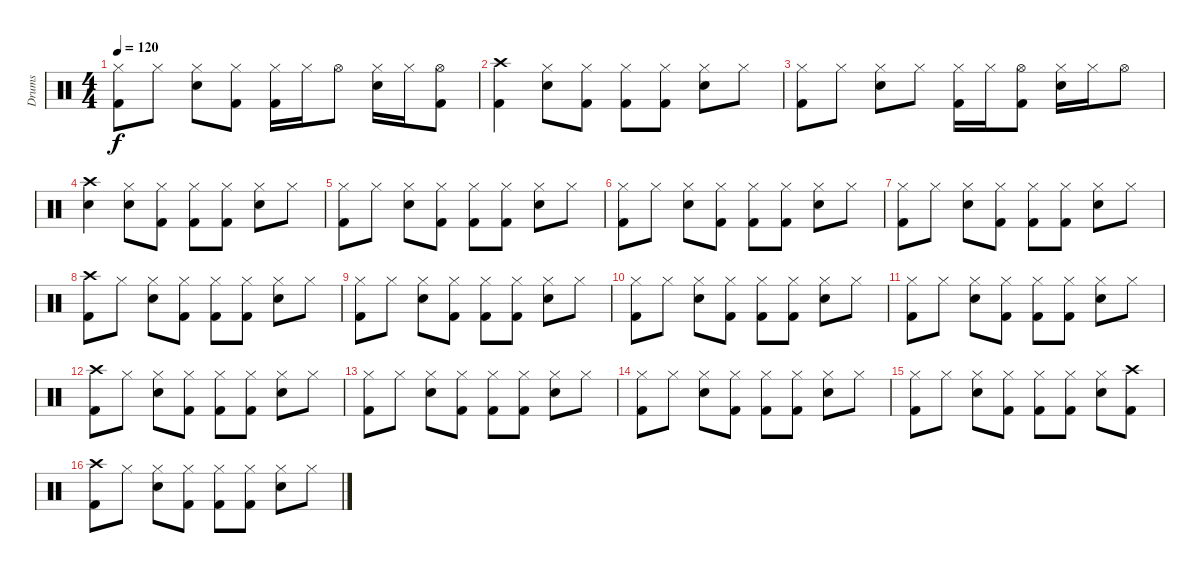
\track ("Drums" "Drums") {instrument percussion}
\staff {score}
\articulation defaults
\ts (4 4)
\tempo 120
\clef neutral
\ks c
("Hi-Hat (closed)" "Kick (hit) 2").8{dy f} "Hi-Hat (closed)".8 ("Hi-Hat (closed)" "Electric Snare (hit)").8 ("Hi-Hat (closed)" "Kick (hit) 2").8 ("Hi-Hat (closed)" "Kick (hit) 2").16 "Hi-Hat (closed)".16 "Hi-Hat (open)".8 ("Hi-Hat (closed)" "Electric Snare (hit)").16 "Hi-Hat (closed)".16 ("Hi-Hat (open)" "Kick (hit) 2").8 |
("Crash high (hit)" "Kick (hit) 2").4 ("Hi-Hat (closed)" "Electric Snare (hit)").8 ("Hi-Hat (closed)" "Kick (hit) 2").8 ("Hi-Hat (closed)" "Kick (hit) 2").8 ("Hi-Hat (closed)" "Kick (hit) 2").8 ("Hi-Hat (closed)" "Electric Snare (hit)").8 "Hi-Hat (closed)".8 |
("Hi-Hat (closed)" "Kick (hit) 2").8 "Hi-Hat (closed)".8 ("Hi-Hat (closed)" "Electric Snare (hit)").8 "Hi-Hat (closed)".8 ("Hi-Hat (closed)" "Kick (hit) 2").16 "Hi-Hat (closed)".16 ("Hi-Hat (open)" "Kick (hit) 2").8 ("Hi-Hat (closed)" "Electric Snare (hit)").16 "Hi-Hat (closed)".16 "Hi-Hat (open)".8 |
("Crash high (hit)" "Snare (hit)").4 ("Hi-Hat (closed)" "Electric Snare (hit)").8 ("Hi-Hat (closed)" "Kick (hit) 2").8 ("Hi-Hat (closed)" "Kick (hit) 2").8 ("Hi-Hat (closed)" "Kick (hit) 2").8 ("Hi-Hat (closed)" "Electric Snare (hit)").8 "Hi-Hat (closed)".8 |
("Hi-Hat (closed)" "Kick (hit) 2").8 "Hi-Hat (closed)".8 ("Hi-Hat (closed)" "Electric Snare (hit)").8 ("Hi-Hat (closed)" "Kick (hit) 2").8 ("Hi-Hat (closed)" "Kick (hit) 2").8 ("Hi-Hat (closed)" "Kick (hit) 2").8 ("Hi-Hat (closed)" "Electric Snare (hit)").8 "Hi-Hat (closed)".8 |
("Hi-Hat (closed)" "Kick (hit) 2").8 "Hi-Hat (closed)".8 ("Hi-Hat (closed)" "Electric Snare (hit)").8 ("Hi-Hat (closed)" "Kick (hit) 2").8 ("Hi-Hat (closed)" "Kick (hit) 2").8 ("Hi-Hat (closed)" "Kick (hit) 2").8 ("Hi-Hat (closed)" "Electric Snare (hit)").8 "Hi-Hat (closed)".8 |
("Hi-Hat (closed)" "Kick (hit) 2").8 "Hi-Hat (closed)".8 ("Hi-Hat (closed)" "Electric Snare (hit)").8 ("Hi-Hat (closed)" "Kick (hit) 2").8 ("Hi-Hat (closed)" "Kick (hit) 2").8 ("Hi-Hat (closed)" "Kick (hit) 2").8 ("Hi-Hat (closed)" "Electric Snare (hit)").8 "Hi-Hat (closed)".8 |
("Crash high (hit)" "Kick (hit) 2").8 "Hi-Hat (closed)".8 ("Hi-Hat (closed)" "Electric Snare (hit)").8 ("Hi-Hat (closed)" "Kick (hit) 2").8 ("Hi-Hat (closed)" "Kick (hit) 2").8 ("Hi-Hat (closed)" "Kick (hit) 2").8 ("Hi-Hat (closed)" "Electric Snare (hit)").8 "Hi-Hat (closed)".8 |
("Hi-Hat (closed)" "Kick (hit) 2").8 "Hi-Hat (closed)".8 ("Hi-Hat (closed)" "Electric Snare (hit)").8 ("Hi-Hat (closed)" "Kick (hit) 2").8 ("Hi-Hat (closed)" "Kick (hit) 2").8 ("Hi-Hat (closed)" "Kick (hit) 2").8 ("Hi-Hat (closed)" "Electric Snare (hit)").8 "Hi-Hat (closed)".8 |
("Hi-Hat (closed)" "Kick (hit) 2").8 "Hi-Hat (closed)".8 ("Hi-Hat (closed)" "Electric Snare (hit)").8 ("Hi-Hat (closed)" "Kick (hit) 2").8 ("Hi-Hat (closed)" "Kick (hit) 2").8 ("Hi-Hat (closed)" "Kick (hit) 2").8 ("Hi-Hat (closed)" "Electric Snare (hit)").8 "Hi-Hat (closed)".8 |
("Hi-Hat (closed)" "Kick (hit) 2").8 "Hi-Hat (closed)".8 ("Hi-Hat (closed)" "Electric Snare (hit)").8 ("Hi-Hat (closed)" "Kick (hit) 2").8 ("Hi-Hat (closed)" "Kick (hit) 2").8 ("Hi-Hat (closed)" "Kick (hit) 2").8 ("Hi-Hat (closed)" "Electric Snare (hit)").8 "Hi-Hat (closed)".8 |
("Crash high (hit)" "Kick (hit) 2").8 "Hi-Hat (closed)".8 ("Hi-Hat (closed)" "Electric Snare (hit)").8 ("Hi-Hat (closed)" "Kick (hit) 2").8 ("Hi-Hat (closed)" "Kick (hit) 2").8 ("Hi-Hat (closed)" "Kick (hit) 2").8 ("Hi-Hat (closed)" "Electric Snare (hit)").8 "Hi-Hat (closed)".8 |
("Hi-Hat (closed)" "Kick (hit) 2").8 "Hi-Hat (closed)".8 ("Hi-Hat (closed)" "Electric Snare (hit)").8 ("Hi-Hat (closed)" "Kick (hit) 2").8 ("Hi-Hat (closed)" "Kick (hit) 2").8 ("Hi-Hat (closed)" "Kick (hit) 2").8 ("Hi-Hat (closed)" "Electric Snare (hit)").8 "Hi-Hat (closed)".8 |
("Hi-Hat (closed)" "Kick (hit) 2").8 "Hi-Hat (closed)".8 ("Hi-Hat (closed)" "Electric Snare (hit)").8 ("Hi-Hat (closed)" "Kick (hit) 2").8 ("Hi-Hat (closed)" "Kick (hit) 2").8 ("Hi-Hat (closed)" "Kick (hit) 2").8 ("Hi-Hat (closed)" "Electric Snare (hit)").8 "Hi-Hat (closed)".8 |
("Hi-Hat (closed)" "Kick (hit) 2").8 "Hi-Hat (closed)".8 ("Hi-Hat (closed)" "Electric Snare (hit)").8 ("Hi-Hat (closed)" "Kick (hit) 2").8 ("Hi-Hat (closed)" "Kick (hit) 2").8 ("Hi-Hat (closed)" "Kick (hit) 2").8 ("Hi-Hat (closed)" "Electric Snare (hit)").8 ("Crash high (hit)" "Kick (hit) 2").8 |
("Crash high (hit)" "Kick (hit) 2").8 "Hi-Hat (closed)".8 ("Hi-Hat (closed)" "Electric Snare (hit)").8 ("Hi-Hat (closed)" "Kick (hit) 2").8 ("Hi-Hat (closed)" "Kick (hit) 2").8 ("Hi-Hat (closed)" "Kick (hit) 2").8 ("Hi-Hat (closed)" "Electric Snare (hit)").8 "Hi-Hat (closed)".8
